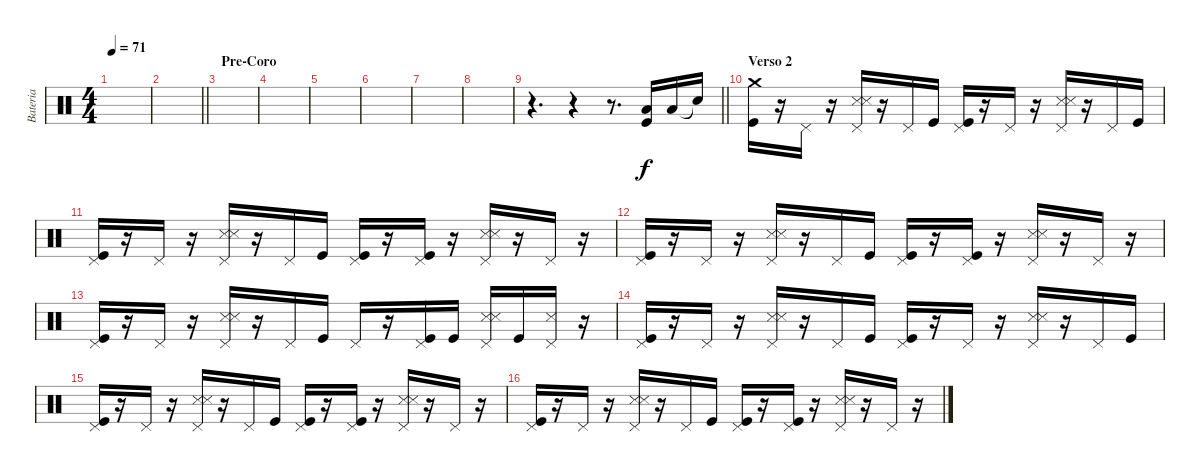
\track ("Bateria" "Bateria") {instrument percussion}
\staff {score}
\articulation defaults
\ts (4 4)
\tempo 71
\clef neutral
\ks c
|
\barLineRight lightlight
|
\section ("" "Pre-Coro")
|
|
|
|
|
|
\barLineRight lightlight
r.4{d} r.4 r.8{d} ("Low Tom (hit)" "Kick (hit)").16 "Low Tom (hit)".16 "Snare (hit)"{t}.16 |
\section ("" "Verso 2")
("Crash medium (hit)" "Kick (hit)").16 r.16 "Pedal Hi-Hat (hit)".16 r.16 ("Pedal Hi-Hat (hit)" "Metronome (hit)" "Metronome (hit)").16 r.16 "Pedal Hi-Hat (hit)".16 "Kick (hit)".16 ("Pedal Hi-Hat (hit)" "Kick (hit)").16 r.16 "Pedal Hi-Hat (hit)".16 r.16 ("Pedal Hi-Hat (hit)" "Metronome (hit)" "Metronome (hit)").16 r.16 "Pedal Hi-Hat (hit)".16 "Kick (hit)".16 |
("Pedal Hi-Hat (hit)" "Kick (hit)").16 r.16 "Pedal Hi-Hat (hit)".16 r.16 ("Pedal Hi-Hat (hit)" "Metronome (hit)" "Metronome (hit)").16 r.16 "Pedal Hi-Hat (hit)".16 "Kick (hit)".16 ("Pedal Hi-Hat (hit)" "Kick (hit)").16 r.16 ("Pedal Hi-Hat (hit)" "Kick (hit)").16 r.16 ("Pedal Hi-Hat (hit)" "Metronome (hit)" "Metronome (hit)").16 r.16 "Pedal Hi-Hat (hit)".16 r.16 |
("Pedal Hi-Hat (hit)" "Kick (hit)").16 r.16 "Pedal Hi-Hat (hit)".16 r.16 ("Pedal Hi-Hat (hit)" "Metronome (hit)" "Metronome (hit)").16 r.16 "Pedal Hi-Hat (hit)".16 "Kick (hit)".16 ("Pedal Hi-Hat (hit)" "Kick (hit)").16 r.16 ("Pedal Hi-Hat (hit)" "Kick (hit)").16 r.16 ("Pedal Hi-Hat (hit)" "Metronome (hit)" "Metronome (hit)").16 r.16 "Pedal Hi-Hat (hit)".16 r.16 |
("Pedal Hi-Hat (hit)" "Kick (hit)").16 r.16 "Pedal Hi-Hat (hit)".16 r.16 ("Pedal Hi-Hat (hit)" "Metronome (hit)" "Metronome (hit)").16 r.16 "Pedal Hi-Hat (hit)".16 "Kick (hit)".16 "Pedal Hi-Hat (hit)".16 r.16 ("Pedal Hi-Hat (hit)" "Kick (hit)").16 "Kick (hit)".16 ("Pedal Hi-Hat (hit)" "Metronome (hit)" "Metronome (hit)").16 "Kick (hit)".16 ("Pedal Hi-Hat (hit)" "Metronome (hit)").16 r.16 |
("Pedal Hi-Hat (hit)" "Kick (hit)").16 r.16 "Pedal Hi-Hat (hit)".16 r.16 ("Pedal Hi-Hat (hit)" "Metronome (hit)" "Metronome (hit)").16 r.16 "Pedal Hi-Hat (hit)".16 "Kick (hit)".16 ("Pedal Hi-Hat (hit)" "Kick (hit)").16 r.16 "Pedal Hi-Hat (hit)".16 r.16 ("Pedal Hi-Hat (hit)" "Metronome (hit)" "Metronome (hit)").16 r.16 "Pedal Hi-Hat (hit)".16 "Kick (hit)".16 |
("Pedal Hi-Hat (hit)" "Kick (hit)").16 r.16 "Pedal Hi-Hat (hit)".16 r.16 ("Pedal Hi-Hat (hit)" "Metronome (hit)" "Metronome (hit)").16 r.16 "Pedal Hi-Hat (hit)".16 "Kick (hit)".16 ("Pedal Hi-Hat (hit)" "Kick (hit)").16 r.16 ("Pedal Hi-Hat (hit)" "Kick (hit)").16 r.16 ("Pedal Hi-Hat (hit)" "Metronome (hit)" "Metronome (hit)").16 r.16 "Pedal Hi-Hat (hit)".16 r.16 |
("Pedal Hi-Hat (hit)" "Kick (hit)").16 r.16 "Pedal Hi-Hat (hit)".16 r.16 ("Pedal Hi-Hat (hit)" "Metronome (hit)" "Metronome (hit)").16 r.16 "Pedal Hi-Hat (hit)".16 "Kick (hit)".16 ("Pedal Hi-Hat (hit)" "Kick (hit)").16 r.16 ("Pedal Hi-Hat (hit)" "Kick (hit)").16 r.16 ("Pedal Hi-Hat (hit)" "Metronome (hit)" "Metronome (hit)").16 r.16 "Pedal Hi-Hat (hit)".16 r.16
